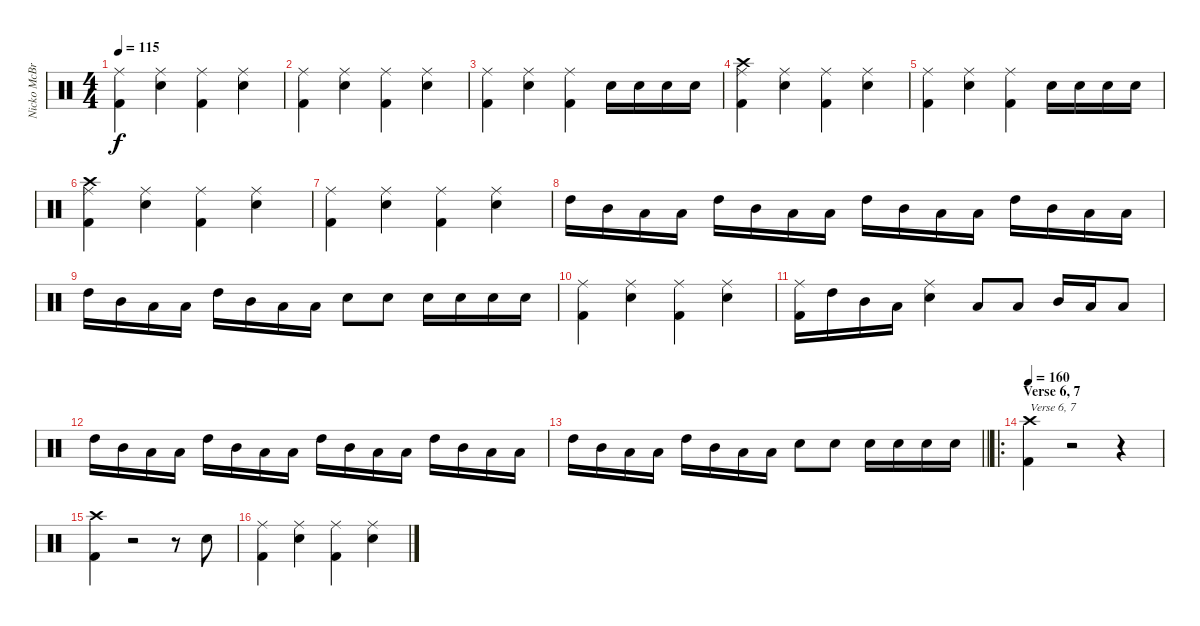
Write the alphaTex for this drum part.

\track ("Nicko McBrain" "Nicko McBr") {instrument percussion}
\staff {score}
\articulation defaults
\ts (4 4)
\tempo 115
\clef neutral
\ks c
("Ride (middle)" "Kick (hit) 2").4{dy f} ("Ride (middle)" "Snare (hit) 2").4 ("Ride (middle)" "Kick (hit) 2").4 ("Ride (middle)" "Snare (hit) 2").4 |
("Ride (middle)" "Kick (hit) 2").4 ("Ride (middle)" "Snare (hit) 2").4 ("Ride (middle)" "Kick (hit) 2").4 ("Ride (middle)" "Snare (hit) 2").4 |
("Ride (middle)" "Kick (hit) 2").4 ("Ride (middle)" "Snare (hit) 2").4 ("Ride (middle)" "Kick (hit) 2").4 "Snare (hit) 2".16 "Snare (hit) 2".16 "Snare (hit) 2".16 "Snare (hit) 2".16 |
("Ride (middle)" "Kick (hit) 2" "Crash high (hit)").4 ("Ride (middle)" "Snare (hit) 2").4 ("Ride (middle)" "Kick (hit) 2").4 ("Ride (middle)" "Snare (hit) 2").4 |
("Ride (middle)" "Kick (hit) 2").4 ("Ride (middle)" "Snare (hit) 2").4 ("Ride (middle)" "Kick (hit) 2").4 "Snare (hit) 2".16 "Snare (hit) 2".16 "Snare (hit) 2".16 "Snare (hit) 2".16 |
("Ride (middle)" "Kick (hit) 2" "Crash high (hit)").4 ("Ride (middle)" "Snare (hit) 2").4 ("Ride (middle)" "Kick (hit) 2").4 ("Ride (middle)" "Snare (hit) 2").4 |
("Ride (middle)" "Kick (hit) 2").4 ("Ride (middle)" "Snare (hit) 2").4 ("Ride (middle)" "Kick (hit) 2").4 ("Ride (middle)" "Snare (hit) 2").4 |
"High Tom (hit)".16 "Mid Tom (hit)".16 "Low Tom (hit)".16 "Low Tom (hit)".16 "High Tom (hit)".16 "Mid Tom (hit)".16 "Low Tom (hit)".16 "Low Tom (hit)".16 "High Tom (hit)".16 "Mid Tom (hit)".16 "Low Tom (hit)".16 "Low Tom (hit)".16 "High Tom (hit)".16 "Mid Tom (hit)".16 "Low Tom (hit)".16 "Low Tom (hit)".16 |
"High Tom (hit)".16 "Mid Tom (hit)".16 "Low Tom (hit)".16 "Low Tom (hit)".16 "High Tom (hit)".16 "Mid Tom (hit)".16 "Low Tom (hit)".16 "Low Tom (hit)".16 "Snare (hit) 2".8 "Snare (hit) 2".8 "Snare (hit) 2".16 "Snare (hit) 2".16 "Snare (hit) 2".16 "Snare (hit) 2".16 |
("Ride (middle)" "Kick (hit) 2").4 ("Ride (middle)" "Snare (hit) 2").4 ("Ride (middle)" "Kick (hit) 2").4 ("Ride (middle)" "Snare (hit) 2").4 |
("Ride (middle)" "Kick (hit) 2").16 "High Tom (hit)".16 "Mid Tom (hit)".16 "Low Tom (hit)".16 ("Ride (middle)" "Snare (hit) 2").4 "Low Tom (hit)".8 "Low Tom (hit)".8 "Mid Tom (hit)".16 "Low Tom (hit)".16 "Low Tom (hit)".8 |
"High Tom (hit)".16 "Mid Tom (hit)".16 "Low Tom (hit)".16 "Low Tom (hit)".16 "High Tom (hit)".16 "Mid Tom (hit)".16 "Low Tom (hit)".16 "Low Tom (hit)".16 "High Tom (hit)".16 "Mid Tom (hit)".16 "Low Tom (hit)".16 "Low Tom (hit)".16 "High Tom (hit)".16 "Mid Tom (hit)".16 "Low Tom (hit)".16 "Low Tom (hit)".16 |
\barLineRight lightlight "High Tom (hit)".16 "Mid Tom (hit)".16 "Low Tom (hit)".16 "Low Tom (hit)".16 "High Tom (hit)".16 "Mid Tom (hit)".16 "Low Tom (hit)".16 "Low Tom (hit)".16 "Snare (hit) 2".8 "Snare (hit) 2".8 "Snare (hit) 2".16 "Snare (hit) 2".16 "Snare (hit) 2".16 "Snare (hit) 2".16
|
\ro
\section ("" "Verse 6, 7")
\tempo 160
("Kick (hit) 2" "Crash high (hit)").4{txt "Verse 6, 7"} r.2 r.4 |
("Kick (hit) 2" "Crash high (hit)").4 r.2 r.8 "Snare (hit) 2".8 |
("Ride (middle)" "Kick (hit) 2").4 ("Ride (middle)" "Snare (hit) 2").4 ("Ride (middle)" "Kick (hit) 2").4 ("Ride (middle)" "Snare (hit) 2").4
